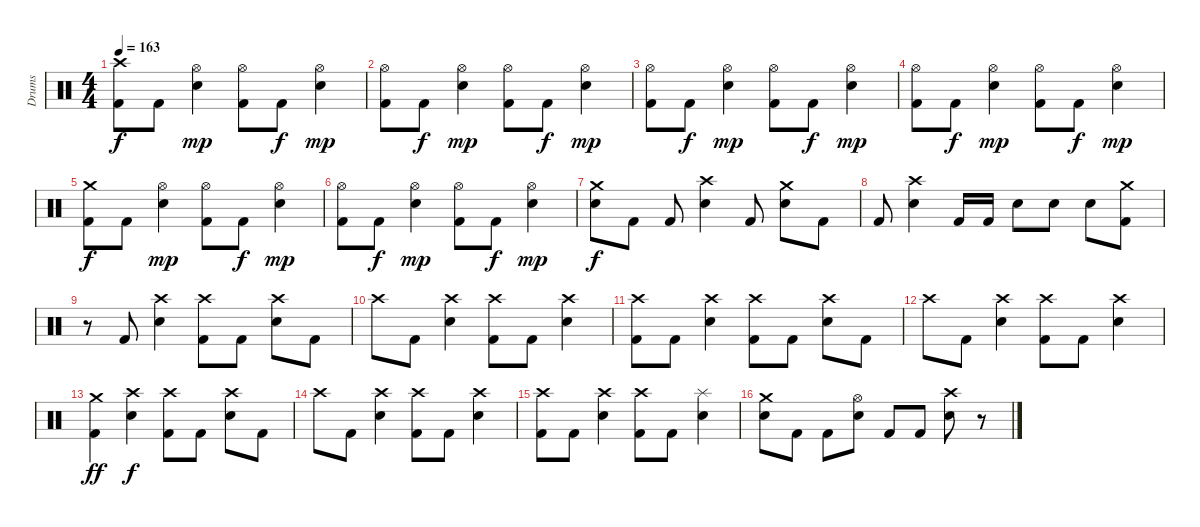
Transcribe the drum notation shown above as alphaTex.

\track ("Drums" "Drums") {instrument percussion}
\staff {score}
\articulation defaults
\ts (4 4)
\tempo 163
\clef neutral
\ks c
("Crash high (hit)" "Kick (hit) 2").8{dy f} "Kick (hit) 2".8 ("Hi-Hat (open)" "Snare (hit) 2").4{dy mp} ("Hi-Hat (open)" "Kick (hit) 2").8 "Kick (hit) 2".8{dy f} ("Hi-Hat (open)" "Snare (hit) 2").4{dy mp} |
("Hi-Hat (open)" "Kick (hit) 2").8 "Kick (hit) 2".8{dy f} ("Hi-Hat (open)" "Snare (hit) 2").4{dy mp} ("Hi-Hat (open)" "Kick (hit) 2").8 "Kick (hit) 2".8{dy f} ("Hi-Hat (open)" "Snare (hit) 2").4{dy mp} |
("Hi-Hat (open)" "Kick (hit) 2").8 "Kick (hit) 2".8{dy f} ("Hi-Hat (open)" "Snare (hit) 2").4{dy mp} ("Hi-Hat (open)" "Kick (hit) 2").8 "Kick (hit) 2".8{dy f} ("Hi-Hat (open)" "Snare (hit) 2").4{dy mp} |
("Hi-Hat (open)" "Kick (hit) 2").8 "Kick (hit) 2".8{dy f} ("Hi-Hat (open)" "Snare (hit) 2").4{dy mp} ("Hi-Hat (open)" "Kick (hit) 2").8 "Kick (hit) 2".8{dy f} ("Hi-Hat (open)" "Snare (hit) 2").4{dy mp} |
("Crash medium (hit)" "Kick (hit) 2").8{dy f} "Kick (hit) 2".8 ("Hi-Hat (open)" "Snare (hit) 2").4{dy mp} ("Hi-Hat (open)" "Kick (hit) 2").8 "Kick (hit) 2".8{dy f} ("Hi-Hat (open)" "Snare (hit) 2").4{dy mp} |
("Hi-Hat (open)" "Kick (hit) 2").8 "Kick (hit) 2".8{dy f} ("Hi-Hat (open)" "Snare (hit) 2").4{dy mp} ("Hi-Hat (open)" "Kick (hit) 2").8 "Kick (hit) 2".8{dy f} ("Hi-Hat (open)" "Snare (hit) 2").4{dy mp} |
("Crash medium (hit)" "Snare (hit) 2").8{dy f} "Kick (hit) 2".8 "Kick (hit) 2".8 ("Crash high (hit)" "Snare (hit) 2").4 "Kick (hit) 2".8 ("Crash medium (hit)" "Snare (hit) 2").8 "Kick (hit) 2".8 |
"Kick (hit) 2".8 ("Crash high (hit)" "Snare (hit) 2").4 "Kick (hit) 2".16 "Kick (hit) 2".16 "Snare (hit) 2".8 "Snare (hit) 2".8 "Snare (hit) 2".8 ("Crash medium (hit)" "Kick (hit) 2").8 |
r.8 "Kick (hit) 2".8 ("Crash high (hit)" "Snare (hit) 2").4 ("Crash high (hit)" "Kick (hit) 2").8 "Kick (hit) 2".8 ("Crash high (hit)" "Snare (hit) 2").8 "Kick (hit) 2".8 |
"Crash high (hit)".8 "Kick (hit) 2".8 ("Crash high (hit)" "Snare (hit) 2").4 ("Crash high (hit)" "Kick (hit) 2").8 "Kick (hit) 2".8 ("Crash high (hit)" "Snare (hit) 2").4 |
("Crash high (hit)" "Kick (hit) 2").8 "Kick (hit) 2".8 ("Crash high (hit)" "Snare (hit) 2").4 ("Crash high (hit)" "Kick (hit) 2").8 "Kick (hit) 2".8 ("Crash high (hit)" "Snare (hit) 2").8 "Kick (hit) 2".8 |
"Crash high (hit)".8 "Kick (hit) 2".8 ("Crash high (hit)" "Snare (hit) 2").4 ("Crash high (hit)" "Kick (hit) 2").8 "Kick (hit) 2".8 ("Crash high (hit)" "Snare (hit) 2").4 |
("Crash medium (hit)" "Kick (hit) 2").4{dy ff} ("Crash high (hit)" "Snare (hit) 2").4{dy f} ("Crash high (hit)" "Kick (hit) 2").8 "Kick (hit) 2".8 ("Crash high (hit)" "Snare (hit) 2").8 "Kick (hit) 2".8 |
"Crash high (hit)".8 "Kick (hit) 2".8 ("Crash high (hit)" "Snare (hit) 2").4 ("Crash high (hit)" "Kick (hit) 2").8 "Kick (hit) 2".8 ("Crash high (hit)" "Snare (hit) 2").4 |
("Crash high (hit)" "Kick (hit) 2").8 "Kick (hit) 2".8 ("Crash high (hit)" "Snare (hit) 2").4 ("Crash high (hit)" "Kick (hit) 2").8 "Kick (hit) 2".8 ("Splash (hit)" "Snare (hit) 2").4 |
("Crash medium (hit)" "Snare (hit) 2").8 "Kick (hit) 2".8 "Kick (hit) 2".8 ("Hi-Hat (open)" "Snare (hit) 2").8 "Kick (hit) 2".8 "Kick (hit) 2".8 ("Crash high (hit)" "Snare (hit) 2").8 r.8
